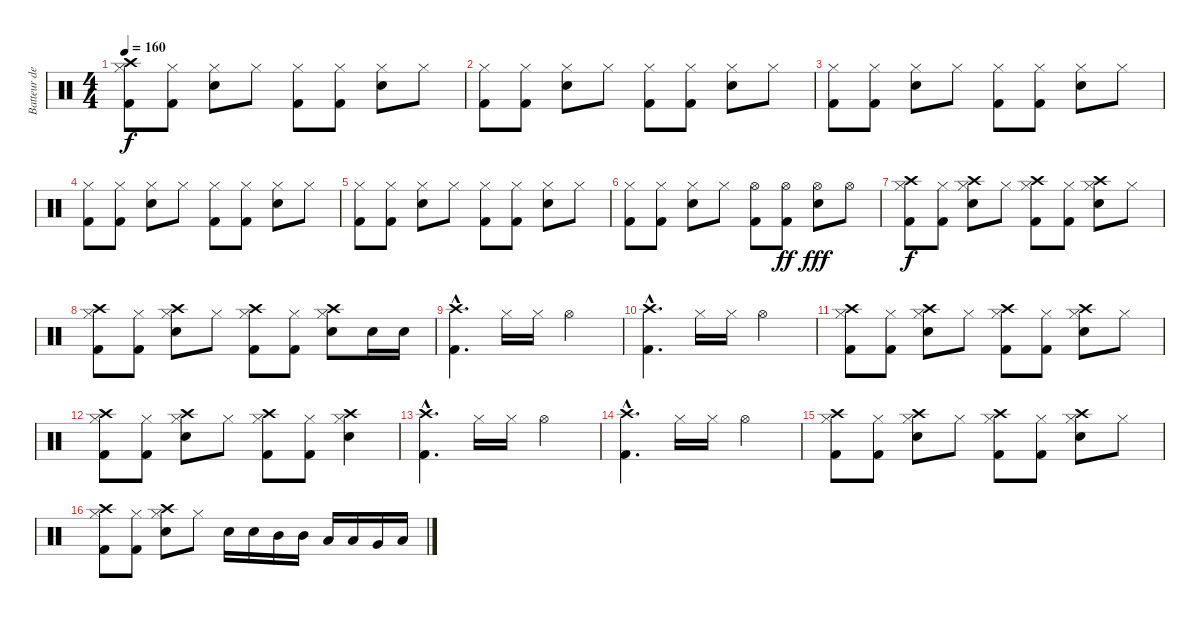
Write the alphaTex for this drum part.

\track ("Batteur de G.C" "Batteur de") {instrument percussion}
\staff {score}
\articulation defaults
\ts (4 4)
\tempo 160
\clef neutral
\ks c
("Crash high (hit)" "Hi-Hat (closed)" "Kick (hit) 2").8{dy f} ("Hi-Hat (closed)" "Kick (hit) 2").8 ("Hi-Hat (closed)" "Electric Snare (hit)").8 "Hi-Hat (closed)".8 ("Hi-Hat (closed)" "Kick (hit) 2").8 ("Hi-Hat (closed)" "Kick (hit) 2").8 ("Hi-Hat (closed)" "Electric Snare (hit)").8 "Hi-Hat (closed)".8 |
("Hi-Hat (closed)" "Kick (hit) 2").8 ("Hi-Hat (closed)" "Kick (hit) 2").8 ("Hi-Hat (closed)" "Electric Snare (hit)").8 "Hi-Hat (closed)".8 ("Hi-Hat (closed)" "Kick (hit) 2").8 ("Hi-Hat (closed)" "Kick (hit) 2").8 ("Hi-Hat (closed)" "Electric Snare (hit)").8 "Hi-Hat (closed)".8 |
("Hi-Hat (closed)" "Kick (hit) 2").8 ("Hi-Hat (closed)" "Kick (hit) 2").8 ("Hi-Hat (closed)" "Electric Snare (hit)").8 "Hi-Hat (closed)".8 ("Hi-Hat (closed)" "Kick (hit) 2").8 ("Hi-Hat (closed)" "Kick (hit) 2").8 ("Hi-Hat (closed)" "Electric Snare (hit)").8 "Hi-Hat (closed)".8 |
("Hi-Hat (closed)" "Kick (hit) 2").8 ("Hi-Hat (closed)" "Kick (hit) 2").8 ("Hi-Hat (closed)" "Electric Snare (hit)").8 "Hi-Hat (closed)".8 ("Hi-Hat (closed)" "Kick (hit) 2").8 ("Hi-Hat (closed)" "Kick (hit) 2").8 ("Hi-Hat (closed)" "Electric Snare (hit)").8 "Hi-Hat (closed)".8 |
("Hi-Hat (closed)" "Kick (hit) 2").8 ("Hi-Hat (closed)" "Kick (hit) 2").8 ("Hi-Hat (closed)" "Electric Snare (hit)").8 "Hi-Hat (closed)".8 ("Hi-Hat (closed)" "Kick (hit) 2").8 ("Hi-Hat (closed)" "Kick (hit) 2").8 ("Hi-Hat (closed)" "Electric Snare (hit)").8 "Hi-Hat (closed)".8 |
("Hi-Hat (closed)" "Kick (hit) 2").8 ("Hi-Hat (closed)" "Kick (hit) 2").8 ("Hi-Hat (closed)" "Electric Snare (hit)").8 "Hi-Hat (closed)".8 ("Hi-Hat (open)" "Kick (hit) 2").8 ("Hi-Hat (open)" "Kick (hit) 2").8{dy ff} ("Hi-Hat (open)" "Electric Snare (hit)").8{dy fff} "Hi-Hat (open)".8 |
("Crash high (hit)" "Hi-Hat (closed)" "Kick (hit) 2").8{dy f} ("Hi-Hat (closed)" "Kick (hit) 2").8 ("Crash high (hit)" "Hi-Hat (closed)" "Electric Snare (hit)").8 "Hi-Hat (closed)".8 ("Crash high (hit)" "Hi-Hat (closed)" "Kick (hit) 2").8 ("Hi-Hat (closed)" "Kick (hit) 2").8 ("Crash high (hit)" "Hi-Hat (closed)" "Electric Snare (hit)").8 "Hi-Hat (closed)".8 |
("Crash high (hit)" "Hi-Hat (closed)" "Kick (hit) 2").8 ("Hi-Hat (closed)" "Kick (hit) 2").8 ("Crash high (hit)" "Hi-Hat (closed)" "Electric Snare (hit)").8 "Hi-Hat (closed)".8 ("Crash high (hit)" "Hi-Hat (closed)" "Kick (hit) 2").8 ("Hi-Hat (closed)" "Kick (hit) 2").8 ("Crash high (hit)" "Hi-Hat (closed)" "Electric Snare (hit)").8 "Electric Snare (hit)".16 "Electric Snare (hit)".16 |
("Crash high (hit)"{hac} "Kick (hit) 2"{hac}).4{d} "Hi-Hat (closed)".16 "Hi-Hat (closed)".16 "Hi-Hat (open)".2 |
("Crash high (hit)"{hac} "Kick (hit) 2"{hac}).4{d} "Hi-Hat (closed)".16 "Hi-Hat (closed)".16 "Hi-Hat (open)".2 |
("Crash high (hit)" "Hi-Hat (closed)" "Kick (hit) 2").8 ("Hi-Hat (closed)" "Kick (hit) 2").8 ("Crash high (hit)" "Hi-Hat (closed)" "Electric Snare (hit)").8 "Hi-Hat (closed)".8 ("Crash high (hit)" "Hi-Hat (closed)" "Kick (hit) 2").8 ("Hi-Hat (closed)" "Kick (hit) 2").8 ("Crash high (hit)" "Hi-Hat (closed)" "Electric Snare (hit)").8 "Hi-Hat (closed)".8 |
("Crash high (hit)" "Hi-Hat (closed)" "Kick (hit) 2").8 ("Hi-Hat (closed)" "Kick (hit) 2").8 ("Crash high (hit)" "Hi-Hat (closed)" "Electric Snare (hit)").8 "Hi-Hat (closed)".8 ("Crash high (hit)" "Hi-Hat (closed)" "Kick (hit) 2").8 ("Hi-Hat (closed)" "Kick (hit) 2").8 ("Crash high (hit)" "Hi-Hat (closed)" "Electric Snare (hit)").4 |
("Crash high (hit)"{hac} "Kick (hit) 2"{hac}).4{d} "Hi-Hat (closed)".16 "Hi-Hat (closed)".16 "Hi-Hat (open)".2 |
("Crash high (hit)"{hac} "Kick (hit) 2"{hac}).4{d} "Hi-Hat (closed)".16 "Hi-Hat (closed)".16 "Hi-Hat (open)".2 |
("Crash high (hit)" "Hi-Hat (closed)" "Kick (hit) 2").8 ("Hi-Hat (closed)" "Kick (hit) 2").8 ("Crash high (hit)" "Hi-Hat (closed)" "Electric Snare (hit)").8 "Hi-Hat (closed)".8 ("Crash high (hit)" "Hi-Hat (closed)" "Kick (hit) 2").8 ("Hi-Hat (closed)" "Kick (hit) 2").8 ("Crash high (hit)" "Hi-Hat (closed)" "Electric Snare (hit)").8 "Hi-Hat (closed)".8 |
("Crash high (hit)" "Hi-Hat (closed)" "Kick (hit) 2").8 ("Hi-Hat (closed)" "Kick (hit) 2").8 ("Crash high (hit)" "Hi-Hat (closed)" "Electric Snare (hit)").8 "Hi-Hat (closed)".8 "Electric Snare (hit)".16 "Electric Snare (hit)".16 "Mid Tom (hit)".16 "Mid Tom (hit)".16 "Low Tom (hit)".16 "Low Tom (hit)".16 "Very Low Tom (hit)".16 "Low Floor Tom (hit)".16
